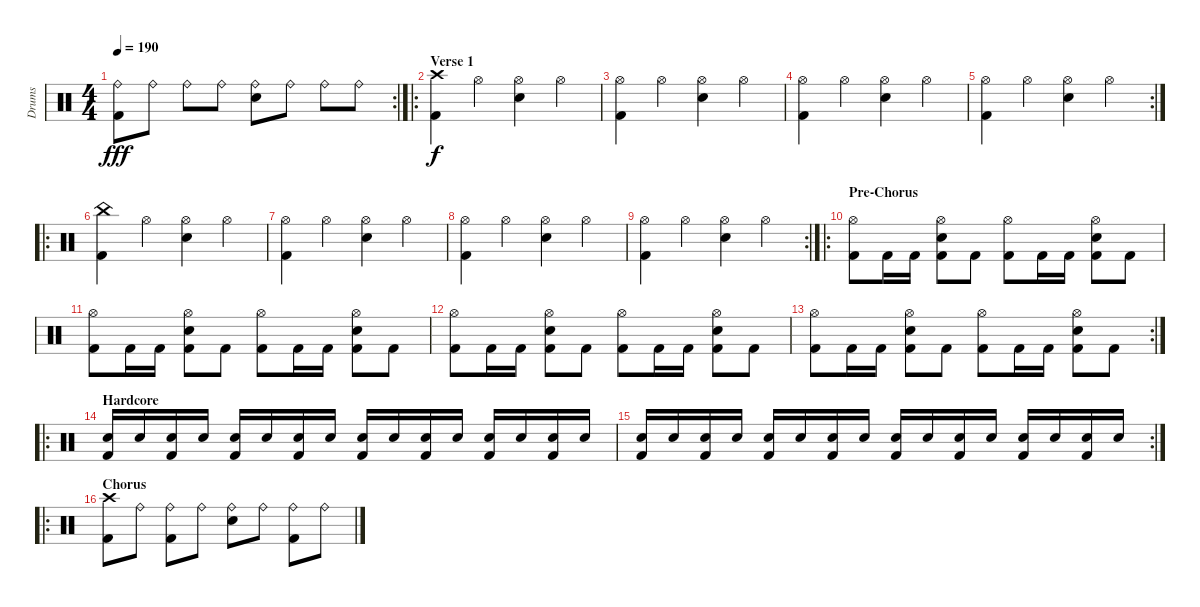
\track ("Drums" "Drums") {instrument percussion}
\staff {score}
\articulation defaults
\rc 2
\ts (4 4)
\tempo 190
\clef neutral
\ks c
("Ride (bell)" "Kick (hit) 2").8{dy fff} "Ride (bell)".8 "Ride (bell)".8 "Ride (bell)".8 ("Ride (bell)" "Electric Snare (hit)").8 "Ride (bell)".8 "Ride (bell)".8 "Ride (bell)".8 |
\ro
\section ("" "Verse 1")
("Crash high (hit)" "Kick (hit) 2").4{dy f} "Hi-Hat (open)".4 ("Hi-Hat (open)" "Electric Snare (hit)").4 "Hi-Hat (open)".4 |
("Hi-Hat (open)" "Kick (hit) 2").4 "Hi-Hat (open)".4 ("Hi-Hat (open)" "Electric Snare (hit)").4 "Hi-Hat (open)".4 |
("Hi-Hat (open)" "Kick (hit) 2").4 "Hi-Hat (open)".4 ("Hi-Hat (open)" "Electric Snare (hit)").4 "Hi-Hat (open)".4 |
\rc 2
("Hi-Hat (open)" "Kick (hit) 2").4 "Hi-Hat (open)".4 ("Hi-Hat (open)" "Electric Snare (hit)").4 "Hi-Hat (open)".4 |
\ro
("China (hit)" "Kick (hit) 2").4 "Hi-Hat (open)".4 ("Hi-Hat (open)" "Electric Snare (hit)").4 "Hi-Hat (open)".4 |
("Hi-Hat (open)" "Kick (hit) 2").4 "Hi-Hat (open)".4 ("Hi-Hat (open)" "Electric Snare (hit)").4 "Hi-Hat (open)".4 |
("Hi-Hat (open)" "Kick (hit) 2").4 "Hi-Hat (open)".4 ("Hi-Hat (open)" "Electric Snare (hit)").4 "Hi-Hat (open)".4 |
\rc 2
("Hi-Hat (open)" "Kick (hit) 2").4 "Hi-Hat (open)".4 ("Hi-Hat (open)" "Electric Snare (hit)").4 "Hi-Hat (open)".4 |
\ro
\section ("" "Pre-Chorus")
("Kick (hit) 2" "Hi-Hat (open)").8 "Kick (hit) 2".16 "Kick (hit) 2".16 ("Kick (hit) 2" "Hi-Hat (open)" "Electric Snare (hit)").8 "Kick (hit) 2".8 ("Kick (hit) 2" "Hi-Hat (open)").8 "Kick (hit) 2".16 "Kick (hit) 2".16 ("Kick (hit) 2" "Hi-Hat (open)" "Electric Snare (hit)").8 "Kick (hit) 2".8 |
("Kick (hit) 2" "Hi-Hat (open)").8 "Kick (hit) 2".16 "Kick (hit) 2".16 ("Kick (hit) 2" "Hi-Hat (open)" "Electric Snare (hit)").8 "Kick (hit) 2".8 ("Kick (hit) 2" "Hi-Hat (open)").8 "Kick (hit) 2".16 "Kick (hit) 2".16 ("Kick (hit) 2" "Hi-Hat (open)" "Electric Snare (hit)").8 "Kick (hit) 2".8 |
("Kick (hit) 2" "Hi-Hat (open)").8 "Kick (hit) 2".16 "Kick (hit) 2".16 ("Kick (hit) 2" "Hi-Hat (open)" "Electric Snare (hit)").8 "Kick (hit) 2".8 ("Kick (hit) 2" "Hi-Hat (open)").8 "Kick (hit) 2".16 "Kick (hit) 2".16 ("Kick (hit) 2" "Hi-Hat (open)" "Electric Snare (hit)").8 "Kick (hit) 2".8 |
\rc 2
("Kick (hit) 2" "Hi-Hat (open)").8 "Kick (hit) 2".16 "Kick (hit) 2".16 ("Kick (hit) 2" "Hi-Hat (open)" "Electric Snare (hit)").8 "Kick (hit) 2".8 ("Kick (hit) 2" "Hi-Hat (open)").8 "Kick (hit) 2".16 "Kick (hit) 2".16 ("Kick (hit) 2" "Hi-Hat (open)" "Electric Snare (hit)").8 "Kick (hit) 2".8 |
\ro
\section ("" "Hardcore")
("Kick (hit) 2" "Electric Snare (hit)").16 "Electric Snare (hit)".16 ("Kick (hit) 2" "Electric Snare (hit)").16 "Electric Snare (hit)".16 ("Kick (hit) 2" "Electric Snare (hit)").16 "Electric Snare (hit)".16 ("Kick (hit) 2" "Electric Snare (hit)").16 "Electric Snare (hit)".16 ("Kick (hit) 2" "Electric Snare (hit)").16 "Electric Snare (hit)".16 ("Kick (hit) 2" "Electric Snare (hit)").16 "Electric Snare (hit)".16 ("Kick (hit) 2" "Electric Snare (hit)").16 "Electric Snare (hit)".16 ("Kick (hit) 2" "Electric Snare (hit)").16 "Electric Snare (hit)".16 |
\rc 2
("Kick (hit) 2" "Electric Snare (hit)").16 "Electric Snare (hit)".16 ("Kick (hit) 2" "Electric Snare (hit)").16 "Electric Snare (hit)".16 ("Kick (hit) 2" "Electric Snare (hit)").16 "Electric Snare (hit)".16 ("Kick (hit) 2" "Electric Snare (hit)").16 "Electric Snare (hit)".16 ("Kick (hit) 2" "Electric Snare (hit)").16 "Electric Snare (hit)".16 ("Kick (hit) 2" "Electric Snare (hit)").16 "Electric Snare (hit)".16 ("Kick (hit) 2" "Electric Snare (hit)").16 "Electric Snare (hit)".16 ("Kick (hit) 2" "Electric Snare (hit)").16 "Electric Snare (hit)".16 |
\ro
\section ("" "Chorus")
("Crash high (hit)" "Kick (hit) 2").8 "Ride (bell)".8 ("Ride (bell)" "Kick (hit) 2").8 "Ride (bell)".8 ("Ride (bell)" "Electric Snare (hit)").8 "Ride (bell)".8 ("Ride (bell)" "Kick (hit) 2").8 "Ride (bell)".8
